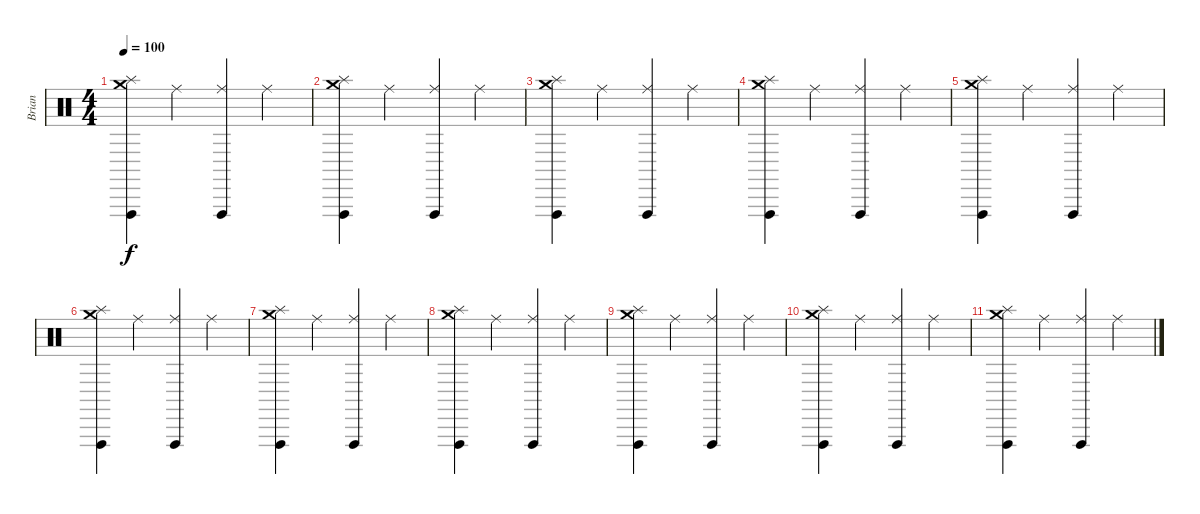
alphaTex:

\track ("Brian" "Brian") {instrument percussion}
\staff {score}
\articulation defaults
\ts (4 4)
\tempo 100
\clef neutral
\ks c
("Crash medium (hit)" "Vibraslap (hit)" "Splash (hit)").4{dy f} "Ride (middle)".4 ("Vibraslap (hit)" "Ride (middle)").4 "Ride (middle)".4 |
("Crash medium (hit)" "Vibraslap (hit)" "Splash (hit)").4 "Ride (middle)".4 ("Vibraslap (hit)" "Ride (middle)").4 "Ride (middle)".4 |
("Crash medium (hit)" "Vibraslap (hit)" "Splash (hit)").4 "Ride (middle)".4 ("Vibraslap (hit)" "Ride (middle)").4 "Ride (middle)".4 |
("Crash medium (hit)" "Vibraslap (hit)" "Splash (hit)").4 "Ride (middle)".4 ("Vibraslap (hit)" "Ride (middle)").4 "Ride (middle)".4 |
("Crash medium (hit)" "Vibraslap (hit)" "Splash (hit)").4 "Ride (middle)".4 ("Vibraslap (hit)" "Ride (middle)").4 "Ride (middle)".4 |
("Crash medium (hit)" "Vibraslap (hit)" "Splash (hit)").4 "Ride (middle)".4 ("Vibraslap (hit)" "Ride (middle)").4 "Ride (middle)".4 |
("Crash medium (hit)" "Vibraslap (hit)" "Splash (hit)").4 "Ride (middle)".4 ("Vibraslap (hit)" "Ride (middle)").4 "Ride (middle)".4 |
("Crash medium (hit)" "Vibraslap (hit)" "Splash (hit)").4 "Ride (middle)".4 ("Vibraslap (hit)" "Ride (middle)").4 "Ride (middle)".4 |
("Crash medium (hit)" "Vibraslap (hit)" "Splash (hit)").4 "Ride (middle)".4 ("Vibraslap (hit)" "Ride (middle)").4 "Ride (middle)".4 |
("Crash medium (hit)" "Vibraslap (hit)" "Splash (hit)").4 "Ride (middle)".4 ("Vibraslap (hit)" "Ride (middle)").4 "Ride (middle)".4 |
("Crash medium (hit)" "Vibraslap (hit)" "Splash (hit)").4 "Ride (middle)".4 ("Vibraslap (hit)" "Ride (middle)").4 "Ride (middle)".4
